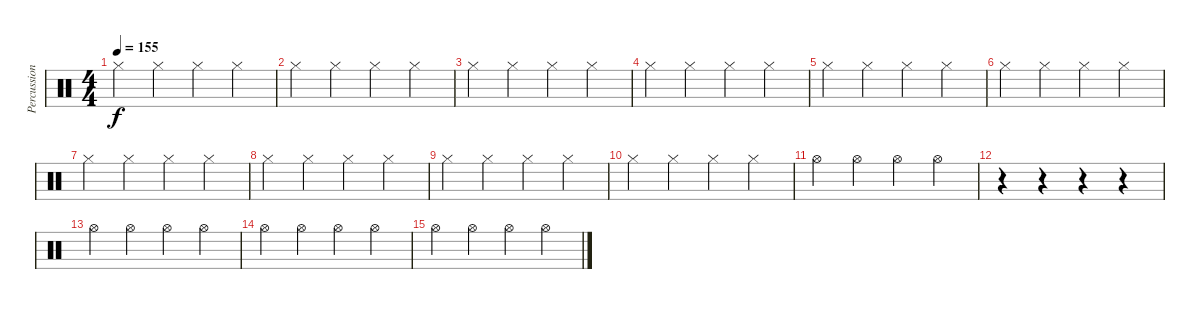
\track ("Percussion" "Percussion") {instrument percussion}
\staff {score}
\articulation defaults
\ts (4 4)
\tempo 155
\clef neutral
\ks c "Hi-Hat (closed)".4{dy f} "Hi-Hat (closed)".4 "Hi-Hat (closed)".4 "Hi-Hat (closed)".4
|
"Hi-Hat (closed)".4 "Hi-Hat (closed)".4 "Hi-Hat (closed)".4 "Hi-Hat (closed)".4 |
"Hi-Hat (closed)".4 "Hi-Hat (closed)".4 "Hi-Hat (closed)".4 "Hi-Hat (closed)".4 |
"Hi-Hat (closed)".4 "Hi-Hat (closed)".4 "Hi-Hat (closed)".4 "Hi-Hat (closed)".4 |
"Hi-Hat (closed)".4 "Hi-Hat (closed)".4 "Hi-Hat (closed)".4 "Hi-Hat (closed)".4 |
"Hi-Hat (closed)".4 "Hi-Hat (closed)".4 "Hi-Hat (closed)".4 "Hi-Hat (closed)".4 |
"Hi-Hat (closed)".4 "Hi-Hat (closed)".4 "Hi-Hat (closed)".4 "Hi-Hat (closed)".4 |
"Hi-Hat (closed)".4 "Hi-Hat (closed)".4 "Hi-Hat (closed)".4 "Hi-Hat (closed)".4 |
"Hi-Hat (closed)".4 "Hi-Hat (closed)".4 "Hi-Hat (closed)".4 "Hi-Hat (closed)".4 |
"Hi-Hat (closed)".4 "Hi-Hat (closed)".4 "Hi-Hat (closed)".4 "Hi-Hat (closed)".4 |
"Hi-Hat (open)".4 "Hi-Hat (open)".4 "Hi-Hat (open)".4 "Hi-Hat (open)".4 |
r.4 r.4 r.4 r.4 |
"Hi-Hat (open)".4 "Hi-Hat (open)".4 "Hi-Hat (open)".4 "Hi-Hat (open)".4 |
"Hi-Hat (open)".4 "Hi-Hat (open)".4 "Hi-Hat (open)".4 "Hi-Hat (open)".4 |
"Hi-Hat (open)".4 "Hi-Hat (open)".4 "Hi-Hat (open)".4 "Hi-Hat (open)".4
